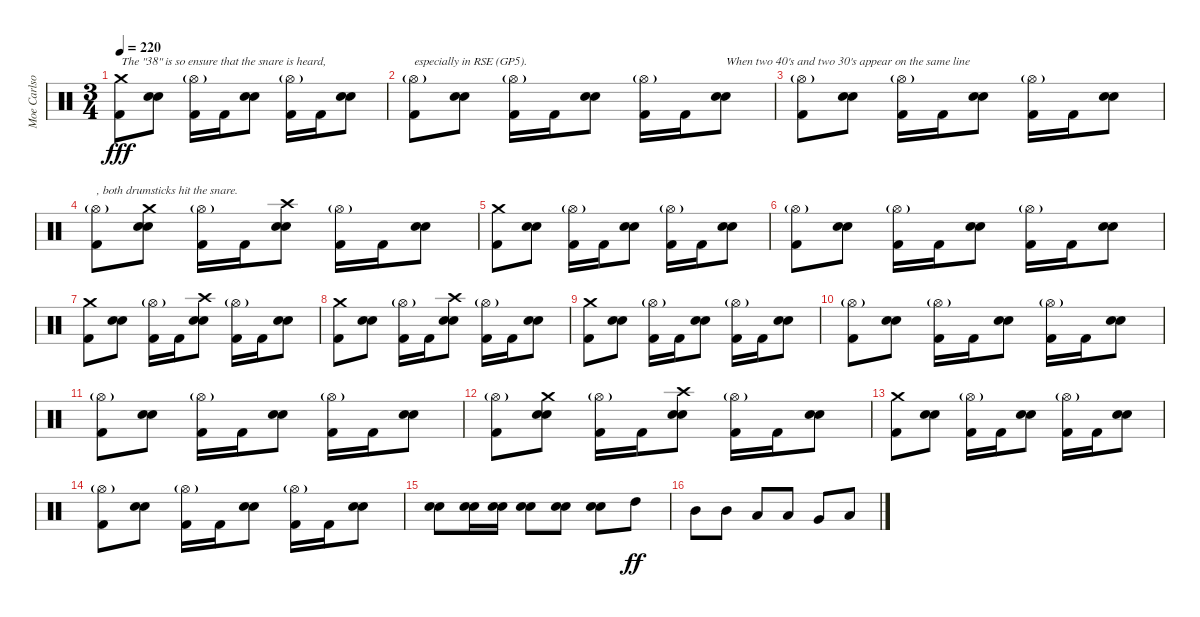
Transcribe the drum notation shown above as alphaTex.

\track ("Moe Carlson" "Moe Carlso") {instrument percussion}
\staff {score}
\articulation defaults
\ts (3 4)
\tempo 220
\clef neutral
\ks c
("Crash medium (hit)" "Kick (hit) 2").8{txt "The \"38\" is so ensure that the snare is heard," dy fff} ("Snare (hit) 2" "Electric Snare (hit)").8 ("Hi-Hat (open)"{g} "Kick (hit) 2").16 "Kick (hit) 2".16 ("Snare (hit) 2" "Electric Snare (hit)").8 ("Hi-Hat (open)"{g} "Kick (hit) 2").16 "Kick (hit) 2".16 ("Snare (hit) 2" "Electric Snare (hit)").8 |
("Hi-Hat (open)"{g} "Kick (hit) 2").8{txt "especially in RSE (GP5)."} ("Snare (hit) 2" "Electric Snare (hit)").8 ("Hi-Hat (open)"{g} "Kick (hit) 2").16 "Kick (hit) 2".16 ("Snare (hit) 2" "Electric Snare (hit)").8 ("Hi-Hat (open)"{g} "Kick (hit) 2").16 "Kick (hit) 2".16 ("Snare (hit) 2" "Electric Snare (hit)").8{txt "When two 40's and two 30's appear on the same line"} |
("Hi-Hat (open)"{g} "Kick (hit) 2").8 ("Snare (hit) 2" "Electric Snare (hit)").8 ("Hi-Hat (open)"{g} "Kick (hit) 2").16 "Kick (hit) 2".16 ("Snare (hit) 2" "Electric Snare (hit)").8 ("Hi-Hat (open)"{g} "Kick (hit) 2").16 "Kick (hit) 2".16 ("Snare (hit) 2" "Electric Snare (hit)").8 |
("Hi-Hat (open)"{g} "Kick (hit) 2").8{txt ", both drumsticks hit the snare."} ("Crash medium (hit)" "Snare (hit) 2" "Electric Snare (hit)").8 ("Hi-Hat (open)"{g} "Kick (hit) 2").16 "Kick (hit) 2".16 ("Crash high (hit)" "Snare (hit) 2" "Electric Snare (hit)").8 ("Hi-Hat (open)"{g} "Kick (hit) 2").16 "Kick (hit) 2".16 ("Snare (hit) 2" "Electric Snare (hit)").8 |
("Crash medium (hit)" "Kick (hit) 2").8 ("Snare (hit) 2" "Electric Snare (hit)").8 ("Hi-Hat (open)"{g} "Kick (hit) 2").16 "Kick (hit) 2".16 ("Snare (hit) 2" "Electric Snare (hit)").8 ("Hi-Hat (open)"{g} "Kick (hit) 2").16 "Kick (hit) 2".16 ("Snare (hit) 2" "Electric Snare (hit)").8 |
("Hi-Hat (open)"{g} "Kick (hit) 2").8 ("Snare (hit) 2" "Electric Snare (hit)").8 ("Hi-Hat (open)"{g} "Kick (hit) 2").16 "Kick (hit) 2".16 ("Snare (hit) 2" "Electric Snare (hit)").8 ("Hi-Hat (open)"{g} "Kick (hit) 2").16 "Kick (hit) 2".16 ("Snare (hit) 2" "Electric Snare (hit)").8 |
("Crash medium (hit)" "Kick (hit) 2").8 ("Snare (hit) 2" "Electric Snare (hit)").8 ("Hi-Hat (open)"{g} "Kick (hit) 2").16 "Kick (hit) 2".16 ("Crash high (hit)" "Snare (hit) 2" "Electric Snare (hit)").8 ("Hi-Hat (open)"{g} "Kick (hit) 2").16 "Kick (hit) 2".16 ("Snare (hit) 2" "Electric Snare (hit)").8 |
("Crash medium (hit)" "Kick (hit) 2").8 ("Snare (hit) 2" "Electric Snare (hit)").8 ("Hi-Hat (open)"{g} "Kick (hit) 2").16 "Kick (hit) 2".16 ("Crash high (hit)" "Snare (hit) 2" "Electric Snare (hit)").8 ("Hi-Hat (open)"{g} "Kick (hit) 2").16 "Kick (hit) 2".16 ("Snare (hit) 2" "Electric Snare (hit)").8 |
("Crash medium (hit)" "Kick (hit) 2").8 ("Snare (hit) 2" "Electric Snare (hit)").8 ("Hi-Hat (open)"{g} "Kick (hit) 2").16 "Kick (hit) 2".16 ("Snare (hit) 2" "Electric Snare (hit)").8 ("Hi-Hat (open)"{g} "Kick (hit) 2").16 "Kick (hit) 2".16 ("Snare (hit) 2" "Electric Snare (hit)").8 |
("Hi-Hat (open)"{g} "Kick (hit) 2").8 ("Snare (hit) 2" "Electric Snare (hit)").8 ("Hi-Hat (open)"{g} "Kick (hit) 2").16 "Kick (hit) 2".16 ("Snare (hit) 2" "Electric Snare (hit)").8 ("Hi-Hat (open)"{g} "Kick (hit) 2").16 "Kick (hit) 2".16 ("Snare (hit) 2" "Electric Snare (hit)").8 |
("Hi-Hat (open)"{g} "Kick (hit) 2").8 ("Snare (hit) 2" "Electric Snare (hit)").8 ("Hi-Hat (open)"{g} "Kick (hit) 2").16 "Kick (hit) 2".16 ("Snare (hit) 2" "Electric Snare (hit)").8 ("Hi-Hat (open)"{g} "Kick (hit) 2").16 "Kick (hit) 2".16 ("Snare (hit) 2" "Electric Snare (hit)").8 |
("Hi-Hat (open)"{g} "Kick (hit) 2").8 ("Crash medium (hit)" "Snare (hit) 2" "Electric Snare (hit)").8 ("Hi-Hat (open)"{g} "Kick (hit) 2").16 "Kick (hit) 2".16 ("Crash high (hit)" "Snare (hit) 2" "Electric Snare (hit)").8 ("Hi-Hat (open)"{g} "Kick (hit) 2").16 "Kick (hit) 2".16 ("Snare (hit) 2" "Electric Snare (hit)").8 |
("Crash medium (hit)" "Kick (hit) 2").8 ("Snare (hit) 2" "Electric Snare (hit)").8 ("Hi-Hat (open)"{g} "Kick (hit) 2").16 "Kick (hit) 2".16 ("Snare (hit) 2" "Electric Snare (hit)").8 ("Hi-Hat (open)"{g} "Kick (hit) 2").16 "Kick (hit) 2".16 ("Snare (hit) 2" "Electric Snare (hit)").8 |
("Hi-Hat (open)"{g} "Kick (hit) 2").8 ("Snare (hit) 2" "Electric Snare (hit)").8 ("Hi-Hat (open)"{g} "Kick (hit) 2").16 "Kick (hit) 2".16 ("Snare (hit) 2" "Electric Snare (hit)").8 ("Hi-Hat (open)"{g} "Kick (hit) 2").16 "Kick (hit) 2".16 ("Snare (hit) 2" "Electric Snare (hit)").8 |
("Snare (hit) 2" "Electric Snare (hit)").8 ("Snare (hit) 2" "Electric Snare (hit)").16 ("Snare (hit) 2" "Electric Snare (hit)").16 ("Snare (hit) 2" "Electric Snare (hit)").8 ("Snare (hit) 2" "Electric Snare (hit)").8 ("Snare (hit) 2" "Electric Snare (hit)").8 "High Tom (hit)".8{dy ff} |
"Mid Tom (hit)".8 "Mid Tom (hit)".8 "Low Tom (hit)".8 "Low Tom (hit)".8 "Very Low Tom (hit)".8 "Low Floor Tom (hit)".8
